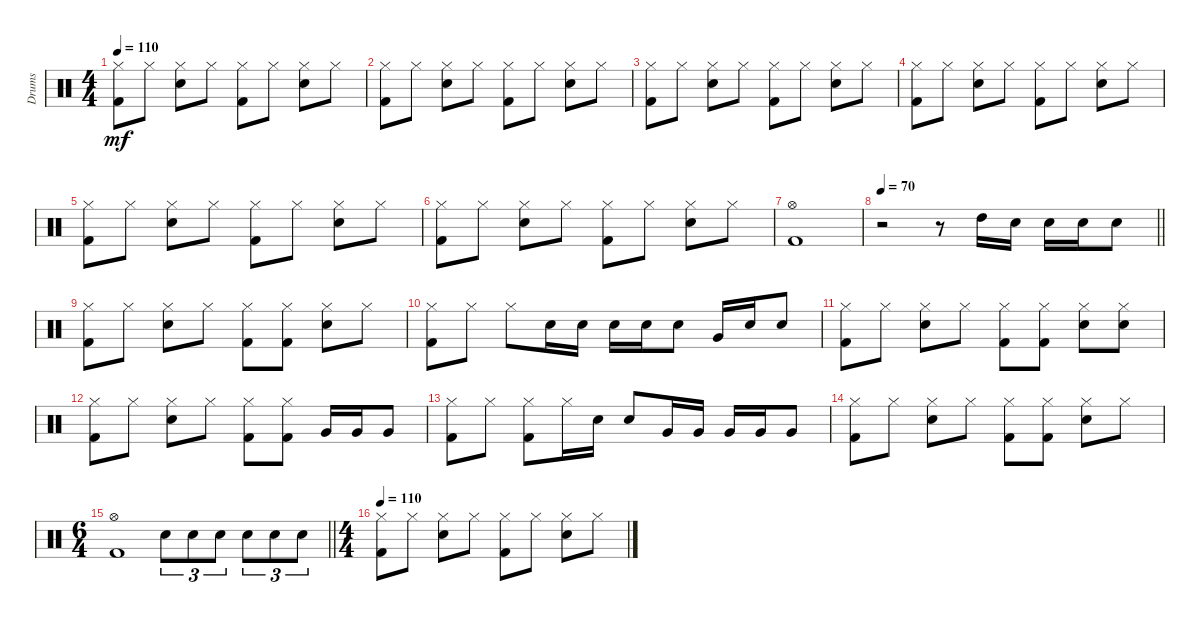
\track ("Drums" "Drums") {instrument percussion}
\staff {score}
\articulation defaults
\ts (4 4)
\tempo 110
\clef neutral
\ks c
("Hi-Hat (closed)" "Kick (hit) 2").8{dy mf} "Hi-Hat (closed)".8 ("Hi-Hat (closed)" "Snare (hit) 2").8 "Hi-Hat (closed)".8 ("Hi-Hat (closed)" "Kick (hit) 2").8 "Hi-Hat (closed)".8 ("Hi-Hat (closed)" "Snare (hit) 2").8 "Hi-Hat (closed)".8 |
("Hi-Hat (closed)" "Kick (hit) 2").8 "Hi-Hat (closed)".8 ("Hi-Hat (closed)" "Snare (hit) 2").8 "Hi-Hat (closed)".8 ("Hi-Hat (closed)" "Kick (hit) 2").8 "Hi-Hat (closed)".8 ("Hi-Hat (closed)" "Snare (hit) 2").8 "Hi-Hat (closed)".8 |
("Hi-Hat (closed)" "Kick (hit) 2").8 "Hi-Hat (closed)".8 ("Hi-Hat (closed)" "Snare (hit) 2").8 "Hi-Hat (closed)".8 ("Hi-Hat (closed)" "Kick (hit) 2").8 "Hi-Hat (closed)".8 ("Hi-Hat (closed)" "Snare (hit) 2").8 "Hi-Hat (closed)".8 |
("Hi-Hat (closed)" "Kick (hit) 2").8 "Hi-Hat (closed)".8 ("Hi-Hat (closed)" "Snare (hit) 2").8 "Hi-Hat (closed)".8 ("Hi-Hat (closed)" "Kick (hit) 2").8 "Hi-Hat (closed)".8 ("Hi-Hat (closed)" "Snare (hit) 2").8 "Hi-Hat (closed)".8 |
("Hi-Hat (closed)" "Kick (hit) 2").8 "Hi-Hat (closed)".8 ("Hi-Hat (closed)" "Snare (hit) 2").8 "Hi-Hat (closed)".8 ("Hi-Hat (closed)" "Kick (hit) 2").8 "Hi-Hat (closed)".8 ("Hi-Hat (closed)" "Snare (hit) 2").8 "Hi-Hat (closed)".8 |
("Hi-Hat (closed)" "Kick (hit) 2").8 "Hi-Hat (closed)".8 ("Hi-Hat (closed)" "Snare (hit) 2").8 "Hi-Hat (closed)".8 ("Hi-Hat (closed)" "Kick (hit) 2").8 "Hi-Hat (closed)".8 ("Hi-Hat (closed)" "Snare (hit) 2").8 "Hi-Hat (closed)".8 |
("Hi-Hat (open)" "Kick (hit) 2").1 |
\tempo 70
\barLineRight lightlight
r.2 r.8 "High Tom (hit)".16 "Snare (hit) 2".16 "Snare (hit) 2".16 "Snare (hit) 2".16 "Snare (hit) 2".8 |
("Hi-Hat (closed)" "Kick (hit) 2").8 "Hi-Hat (closed)".8 ("Hi-Hat (closed)" "Snare (hit) 2").8 "Hi-Hat (closed)".8 ("Hi-Hat (closed)" "Kick (hit) 2").8 ("Hi-Hat (closed)" "Kick (hit) 2").8 ("Hi-Hat (closed)" "Snare (hit) 2").8 "Hi-Hat (closed)".8 |
("Hi-Hat (closed)" "Kick (hit) 2").8 "Hi-Hat (closed)".8 "Hi-Hat (closed)".8 "Snare (hit) 2".16 "Snare (hit) 2".16 "Snare (hit) 2".16 "Snare (hit) 2".16 "Snare (hit) 2".8 "Very Low Tom (hit)".16 "Snare (hit) 2".16 "Snare (hit) 2".8 |
("Hi-Hat (closed)" "Kick (hit) 2").8 "Hi-Hat (closed)".8 ("Hi-Hat (closed)" "Snare (hit) 2").8 "Hi-Hat (closed)".8 ("Hi-Hat (closed)" "Kick (hit) 2").8 ("Hi-Hat (closed)" "Kick (hit) 2").8 ("Hi-Hat (closed)" "Snare (hit) 2").8 ("Hi-Hat (closed)" "Snare (hit) 2").8 |
("Hi-Hat (closed)" "Kick (hit) 2").8 "Hi-Hat (closed)".8 ("Hi-Hat (closed)" "Snare (hit) 2").8 "Hi-Hat (closed)".8 ("Hi-Hat (closed)" "Kick (hit) 2").8 ("Hi-Hat (closed)" "Kick (hit) 2").8 "Very Low Tom (hit)".16 "Very Low Tom (hit)".16 "Very Low Tom (hit)".8 |
("Hi-Hat (closed)" "Kick (hit) 2").8 "Hi-Hat (closed)".8 ("Hi-Hat (closed)" "Kick (hit) 2").8 "Hi-Hat (closed)".16 "Snare (hit) 2".16 "Snare (hit) 2".8 "Very Low Tom (hit)".16 "Very Low Tom (hit)".16 "Very Low Tom (hit)".16 "Very Low Tom (hit)".16 "Very Low Tom (hit)".8 |
("Hi-Hat (closed)" "Kick (hit) 2").8 "Hi-Hat (closed)".8 ("Hi-Hat (closed)" "Snare (hit) 2").8 "Hi-Hat (closed)".8 ("Hi-Hat (closed)" "Kick (hit) 2").8 ("Hi-Hat (closed)" "Kick (hit) 2").8 ("Hi-Hat (closed)" "Snare (hit) 2").8 "Hi-Hat (closed)".8 |
\ts (6 4)
\barLineRight lightlight
("Hi-Hat (open)" "Kick (hit) 2").1 "Snare (hit) 2".8{tu (3 2)} "Snare (hit) 2".8{tu (3 2)} "Snare (hit) 2".8{tu (3 2)} "Snare (hit) 2".8{tu (3 2)} "Snare (hit) 2".8{tu (3 2)} "Snare (hit) 2".8{tu (3 2)} |
\ts (4 4)
\tempo 110
("Hi-Hat (closed)" "Kick (hit) 2").8 "Hi-Hat (closed)".8 ("Hi-Hat (closed)" "Snare (hit) 2").8 "Hi-Hat (closed)".8 ("Hi-Hat (closed)" "Kick (hit) 2").8 "Hi-Hat (closed)".8 ("Hi-Hat (closed)" "Snare (hit) 2").8 "Hi-Hat (closed)".8
